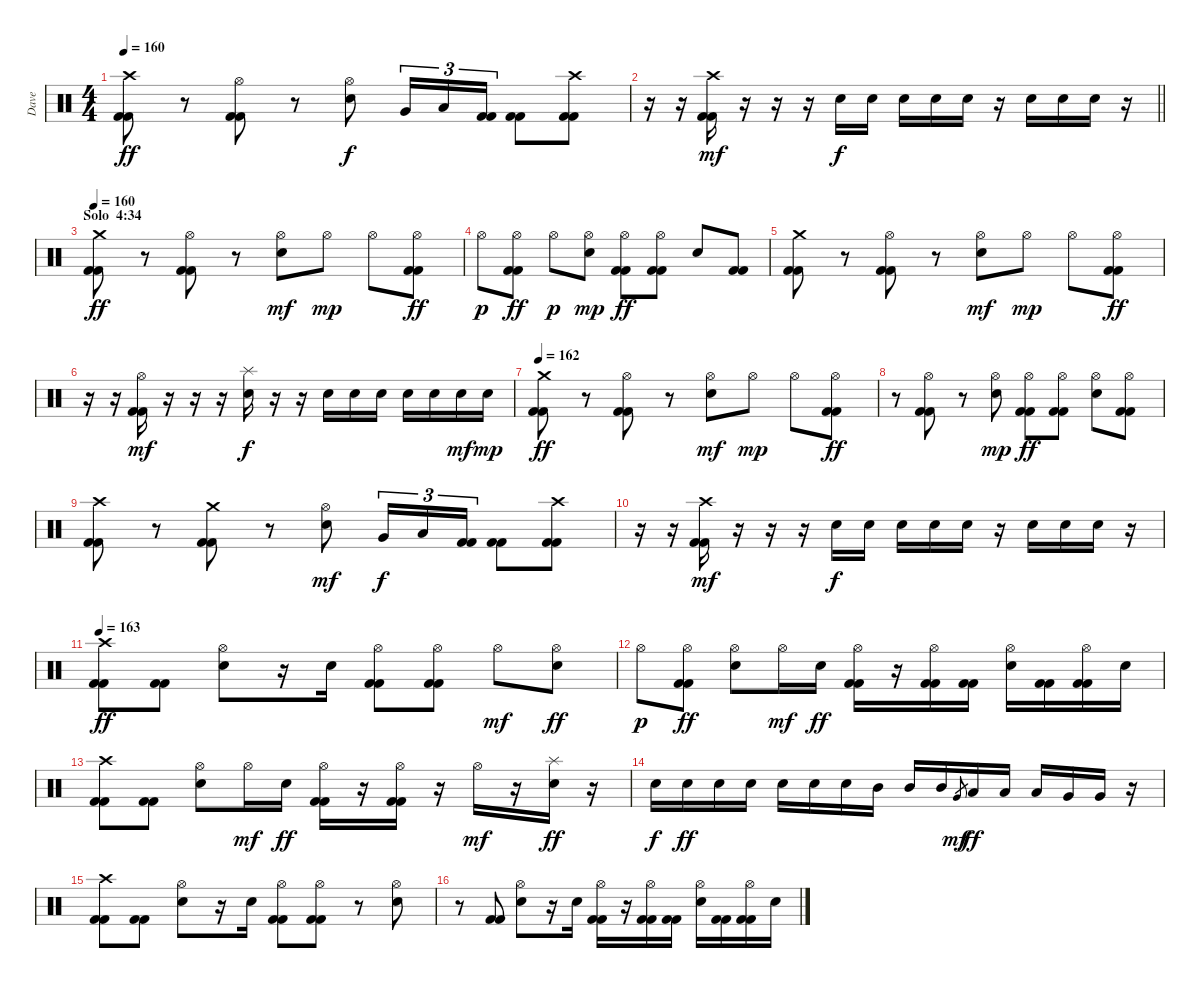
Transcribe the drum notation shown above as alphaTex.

\track ("Dave" "Dave") {instrument percussion}
\staff {score}
\articulation defaults
\ts (4 4)
\tempo 160
\clef neutral
\ks c
("Crash high (hit)" "Kick (hit) 2" "Kick (hit) 2").8{dy ff} r.8 ("Hi-Hat (open)" "Kick (hit) 2" "Kick (hit) 2").8 r.8 ("Hi-Hat (open)" "Electric Snare (hit)").8{dy f} "Very Low Tom (hit)".16{tu (3 2)} "Low Floor Tom (hit)".16{tu (3 2)} ("Kick (hit) 2" "Kick (hit) 2").16{tu (3 2)} ("Kick (hit) 2" "Kick (hit) 2").8 ("Crash high (hit)" "Kick (hit) 2" "Kick (hit) 2").8 |
\barLineRight lightlight
r.16 r.16 ("Crash high (hit)" "Kick (hit) 2" "Kick (hit) 2").16{dy mf} r.16 r.16 r.16 "Electric Snare (hit)".16{dy f} "Electric Snare (hit)".16 "Electric Snare (hit)".16 "Electric Snare (hit)".16 "Electric Snare (hit)".16 r.16 "Electric Snare (hit)".16 "Electric Snare (hit)".16 "Electric Snare (hit)".16 r.16 |
\section ("" "Solo  4:34")
\tempo 160
("Crash medium (hit)" "Kick (hit) 2" "Kick (hit) 2").8{dy ff} r.8 ("Hi-Hat (open)" "Kick (hit) 2" "Kick (hit) 2").8 r.8 ("Hi-Hat (open)" "Electric Snare (hit)").8{dy mf} "Hi-Hat (open)".8{dy mp} "Hi-Hat (open)".8 ("Hi-Hat (open)" "Kick (hit) 2" "Kick (hit) 2").8{dy ff} |
"Hi-Hat (open)".8{dy p} ("Hi-Hat (open)" "Kick (hit) 2" "Kick (hit) 2").8{dy ff} "Hi-Hat (open)".8{dy p} ("Hi-Hat (open)" "Electric Snare (hit)").8{dy mp} ("Hi-Hat (open)" "Kick (hit) 2" "Kick (hit) 2").8{dy ff} ("Hi-Hat (open)" "Kick (hit) 2" "Kick (hit) 2").8 "Electric Snare (hit)".8 ("Kick (hit) 2" "Kick (hit) 2").8 |
("Crash medium (hit)" "Kick (hit) 2" "Kick (hit) 2").8 r.8 ("Hi-Hat (open)" "Kick (hit) 2" "Kick (hit) 2").8 r.8 ("Hi-Hat (open)" "Electric Snare (hit)").8{dy mf} "Hi-Hat (open)".8{dy mp} "Hi-Hat (open)".8 ("Hi-Hat (open)" "Kick (hit) 2" "Kick (hit) 2").8{dy ff} |
r.16 r.16 ("Hi-Hat (open)" "Kick (hit) 2" "Kick (hit) 2").16{dy mf} r.16 r.16 r.16 ("Splash (hit)" "Electric Snare (hit)").16{dy f} r.16 r.16 "Electric Snare (hit)".16 "Electric Snare (hit)".16 "Electric Snare (hit)".16 "Electric Snare (hit)".16 "Electric Snare (hit)".16 "Electric Snare (hit)".16{dy mf} "Electric Snare (hit)".16{dy mp} |
\tempo 162
("Crash medium (hit)" "Kick (hit) 2" "Kick (hit) 2").8{dy ff} r.8 ("Hi-Hat (open)" "Kick (hit) 2" "Kick (hit) 2").8 r.8 ("Hi-Hat (open)" "Electric Snare (hit)").8{dy mf} "Hi-Hat (open)".8{dy mp} "Hi-Hat (open)".8 ("Hi-Hat (open)" "Kick (hit) 2" "Kick (hit) 2").8{dy ff} |
r.8 ("Hi-Hat (open)" "Kick (hit) 2" "Kick (hit) 2").8 r.8 ("Hi-Hat (open)" "Electric Snare (hit)").8{dy mp} ("Hi-Hat (open)" "Kick (hit) 2" "Kick (hit) 2").8{dy ff} ("Hi-Hat (open)" "Kick (hit) 2" "Kick (hit) 2").8 ("Hi-Hat (open)" "Electric Snare (hit)").8 ("Hi-Hat (open)" "Kick (hit) 2" "Kick (hit) 2").8 |
("Crash high (hit)" "Kick (hit) 2" "Kick (hit) 2").8 r.8 ("Crash medium (hit)" "Kick (hit) 2" "Kick (hit) 2").8 r.8 ("Hi-Hat (open)" "Electric Snare (hit)").8{dy mf} "Very Low Tom (hit)".16{tu (3 2) dy f} "Low Floor Tom (hit)".16{tu (3 2)} ("Kick (hit) 2" "Kick (hit) 2").16{tu (3 2)} ("Kick (hit) 2" "Kick (hit) 2").8 ("Crash high (hit)" "Kick (hit) 2" "Kick (hit) 2").8 |
r.16 r.16 ("Crash high (hit)" "Kick (hit) 2" "Kick (hit) 2").16{dy mf} r.16 r.16 r.16 "Electric Snare (hit)".16{dy f} "Electric Snare (hit)".16 "Electric Snare (hit)".16 "Electric Snare (hit)".16 "Electric Snare (hit)".16 r.16 "Electric Snare (hit)".16 "Electric Snare (hit)".16 "Electric Snare (hit)".16 r.16 |
\tempo 163
("Crash high (hit)" "Kick (hit) 2" "Kick (hit) 2").8{dy ff} ("Kick (hit) 2" "Kick (hit) 2").8 ("Hi-Hat (open)" "Electric Snare (hit)").8 r.16 "Electric Snare (hit)".16 ("Hi-Hat (open)" "Kick (hit) 2" "Kick (hit) 2").8 ("Hi-Hat (open)" "Kick (hit) 2" "Kick (hit) 2").8 "Hi-Hat (open)".8{dy mf} ("Hi-Hat (open)" "Electric Snare (hit)").8{dy ff} |
"Hi-Hat (open)".8{dy p} ("Hi-Hat (open)" "Kick (hit) 2" "Kick (hit) 2").8{dy ff} ("Hi-Hat (open)" "Electric Snare (hit)").8 "Hi-Hat (open)".16{dy mf} "Electric Snare (hit)".16{dy ff} ("Hi-Hat (open)" "Kick (hit) 2" "Kick (hit) 2").16 r.16 ("Hi-Hat (open)" "Kick (hit) 2" "Kick (hit) 2").16 ("Kick (hit) 2" "Kick (hit) 2").16 ("Hi-Hat (open)" "Electric Snare (hit)").16 ("Kick (hit) 2" "Kick (hit) 2").16 ("Hi-Hat (open)" "Kick (hit) 2" "Kick (hit) 2").16 "Electric Snare (hit)".16 |
("Crash high (hit)" "Kick (hit) 2" "Kick (hit) 2").8 ("Kick (hit) 2" "Kick (hit) 2").8 ("Hi-Hat (open)" "Electric Snare (hit)").8 "Hi-Hat (open)".16{dy mf} "Electric Snare (hit)".16{dy ff} ("Hi-Hat (open)" "Kick (hit) 2" "Kick (hit) 2").16 r.16 ("Hi-Hat (open)" "Kick (hit) 2" "Kick (hit) 2").16 r.16 "Hi-Hat (open)".16{dy mf} r.16 ("Splash (hit)" "Electric Snare (hit)").16{dy ff} r.16 |
"Electric Snare (hit)".16{dy f} "Electric Snare (hit)".16{dy ff} "Electric Snare (hit)".16 "Electric Snare (hit)".16 "Electric Snare (hit)".16 "Electric Snare (hit)".16 "Electric Snare (hit)".16 "Mid Tom (hit)".16 "Mid Tom (hit)".16 "Mid Tom (hit)".16 "Very Low Tom (hit)".8{gr dy mf} "Low Tom (hit)".16{dy ff} "Low Tom (hit)".16 "Low Tom (hit)".16 "Very Low Tom (hit)".16 "Very Low Tom (hit)".16 r.16 |
("Crash high (hit)" "Kick (hit) 2" "Kick (hit) 2").8 ("Kick (hit) 2" "Kick (hit) 2").8 ("Hi-Hat (open)" "Electric Snare (hit)").8 r.16 "Electric Snare (hit)".16 ("Hi-Hat (open)" "Kick (hit) 2" "Kick (hit) 2").8 ("Hi-Hat (open)" "Kick (hit) 2" "Kick (hit) 2").8 r.8 ("Hi-Hat (open)" "Electric Snare (hit)").8 |
r.8 ("Kick (hit) 2" "Kick (hit) 2").8 ("Hi-Hat (open)" "Electric Snare (hit)").8 r.16 "Electric Snare (hit)".16 ("Hi-Hat (open)" "Kick (hit) 2" "Kick (hit) 2").16 r.16 ("Hi-Hat (open)" "Kick (hit) 2" "Kick (hit) 2").16 ("Kick (hit) 2" "Kick (hit) 2").16 ("Hi-Hat (open)" "Electric Snare (hit)").16 ("Kick (hit) 2" "Kick (hit) 2").16 ("Hi-Hat (open)" "Kick (hit) 2" "Kick (hit) 2").16 "Electric Snare (hit)".16
